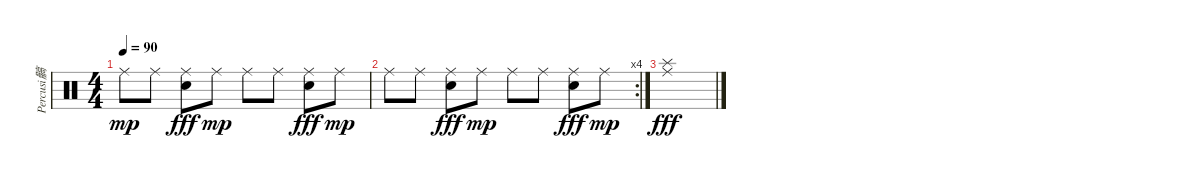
\track ("Percusi髇" "Percusi髇") {instrument percussion}
\staff {score}
\articulation defaults
\ts (4 4)
\tempo 90
\clef neutral
\ks c "Ride (middle)".8{dy mp} "Ride (middle)".8
("Ride (middle)" "Electric Snare (hit)").8{dy fff} "Ride (middle)".8{dy mp} "Ride (middle)".8 "Ride (middle)".8 ("Ride (middle)" "Electric Snare (hit)").8{dy fff} "Ride (middle)".8{dy mp} |
\rc 4 "Ride (middle)".8 "Ride (middle)".8
("Ride (middle)" "Electric Snare (hit)").8{dy fff} "Ride (middle)".8{dy mp} "Ride (middle)".8 "Ride (middle)".8 ("Ride (middle)" "Electric Snare (hit)").8{dy fff} "Ride (middle)".8{dy mp} |
("Ride (middle)" "Splash (hit)").1{dy fff}
